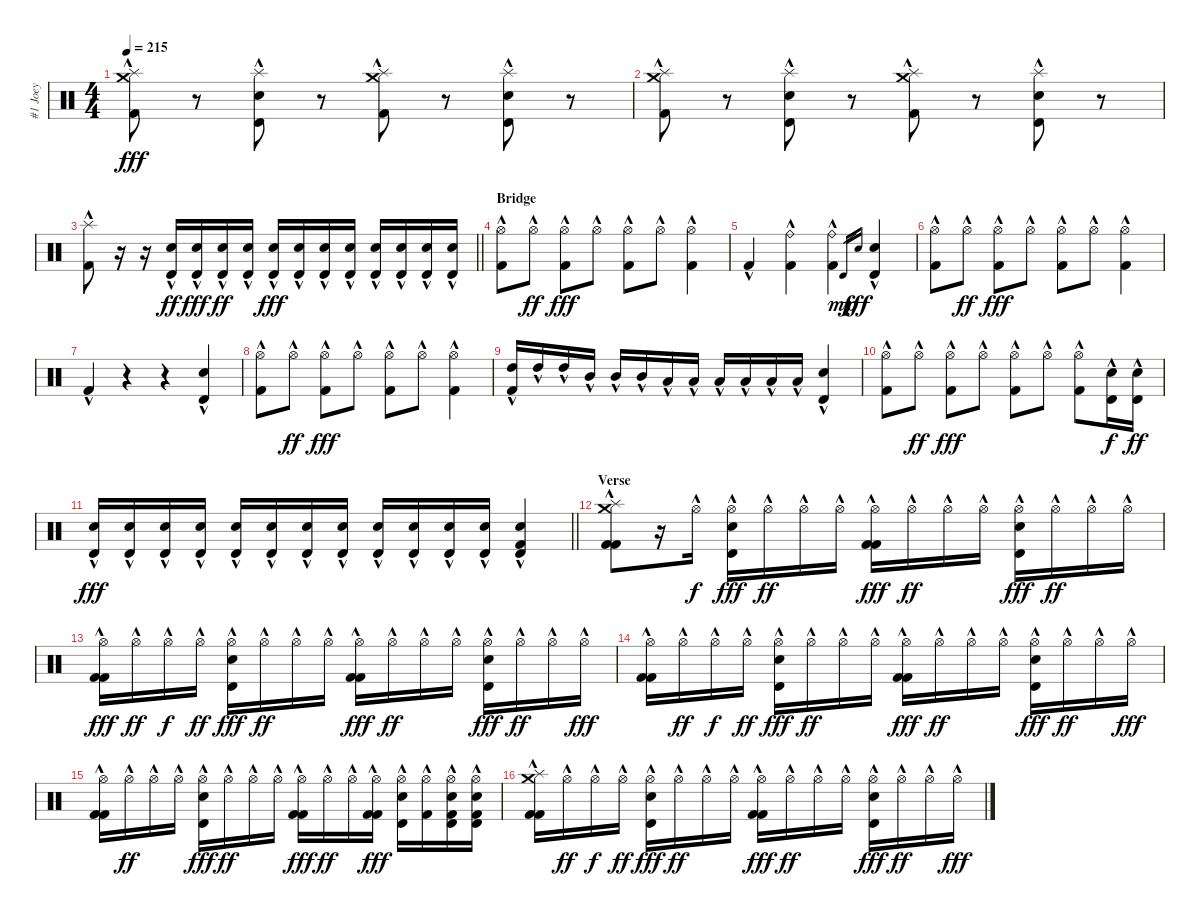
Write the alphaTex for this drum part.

\track ("#1 Joey" "#1 Joey") {instrument percussion}
\staff {score}
\articulation defaults
\ts (4 4)
\tempo 215
\clef neutral
\ks c
("Crash medium (hit)"{hac} "Splash (hit)"{hac} "Kick (hit) 2"{hac}).8{dy fff} r.8 ("Splash (hit)"{hac} "Timbale high (hit)"{hac} "Electric Snare (hit)"{hac}).8 r.8 ("Crash medium (hit)"{hac} "Splash (hit)"{hac} "Kick (hit) 2"{hac}).8 r.8 ("Splash (hit)"{hac} "Timbale high (hit)"{hac} "Electric Snare (hit)"{hac}).8 r.8 |
("Crash medium (hit)"{hac} "Splash (hit)"{hac} "Kick (hit) 2"{hac}).8 r.8 ("Splash (hit)"{hac} "Timbale high (hit)"{hac} "Electric Snare (hit)"{hac}).8 r.8 ("Crash medium (hit)"{hac} "Splash (hit)"{hac} "Kick (hit) 2"{hac}).8 r.8 ("Splash (hit)"{hac} "Timbale high (hit)"{hac} "Electric Snare (hit)"{hac}).8 r.8 |
\barLineRight lightlight
("Splash (hit)"{hac} "Kick (hit) 2"{hac}).8 r.16 r.16 ("Timbale high (hit)"{hac} "Electric Snare (hit)"{hac}).16{dy ff} ("Timbale high (hit)"{hac} "Electric Snare (hit)"{hac}).16{dy fff} ("Timbale high (hit)"{hac} "Electric Snare (hit)"{hac}).16{dy ff} ("Timbale high (hit)"{hac} "Electric Snare (hit)"{hac}).16 ("Timbale high (hit)"{hac} "Electric Snare (hit)"{hac}).16{dy fff} ("Timbale high (hit)"{hac} "Electric Snare (hit)"{hac}).16 ("Timbale high (hit)"{hac} "Electric Snare (hit)"{hac}).16 ("Timbale high (hit)"{hac} "Electric Snare (hit)"{hac}).16 ("Timbale high (hit)"{hac} "Electric Snare (hit)"{hac}).16 ("Timbale high (hit)"{hac} "Electric Snare (hit)"{hac}).16 ("Timbale high (hit)"{hac} "Electric Snare (hit)"{hac}).16 ("Timbale high (hit)"{hac} "Electric Snare (hit)"{hac}).16 |
\section ("" "Bridge")
("Hi-Hat (open)"{hac} "Kick (hit) 2"{hac}).8 "Hi-Hat (open)"{hac}.8{dy ff} ("Hi-Hat (open)"{hac} "Kick (hit) 2"{hac}).8{dy fff} "Hi-Hat (open)"{hac}.8 ("Hi-Hat (open)"{hac} "Kick (hit) 2"{hac}).8 "Hi-Hat (open)"{hac}.8 ("Hi-Hat (open)"{hac} "Kick (hit) 2"{hac}).4 |
"Kick (hit) 2"{hac}.4 ("Ride (bell)"{hac} "Kick (hit) 2"{hac}).4 ("Ride (bell)"{hac} "Kick (hit) 2"{hac}).4 "Timbale high (hit)".16{gr dy mp} "Electric Snare (hit)".16{gr dy fff} ("Timbale high (hit)"{hac} "Electric Snare (hit)"{hac}).4 |
("Hi-Hat (open)"{hac} "Kick (hit) 2"{hac}).8 "Hi-Hat (open)"{hac}.8{dy ff} ("Hi-Hat (open)"{hac} "Kick (hit) 2"{hac}).8{dy fff} "Hi-Hat (open)"{hac}.8 ("Hi-Hat (open)"{hac} "Kick (hit) 2"{hac}).8 "Hi-Hat (open)"{hac}.8 ("Hi-Hat (open)"{hac} "Kick (hit) 2"{hac}).4 |
"Kick (hit) 2"{hac}.4 r.4 r.4 ("Timbale high (hit)"{hac} "Electric Snare (hit)"{hac}).4 |
("Hi-Hat (open)"{hac} "Kick (hit) 2"{hac}).8 "Hi-Hat (open)"{hac}.8{dy ff} ("Hi-Hat (open)"{hac} "Kick (hit) 2"{hac}).8{dy fff} "Hi-Hat (open)"{hac}.8 ("Hi-Hat (open)"{hac} "Kick (hit) 2"{hac}).8 "Hi-Hat (open)"{hac}.8 ("Hi-Hat (open)"{hac} "Kick (hit) 2"{hac}).4 |
("High Tom (hit)"{hac} "Kick (hit) 2"{hac}).16 "High Tom (hit)"{hac}.16 "High Tom (hit)"{hac}.16 "Mid Tom (hit)"{hac}.16 "Mid Tom (hit)"{hac}.16 "Mid Tom (hit)"{hac}.16 "Low Tom (hit)"{hac}.16 "Low Tom (hit)"{hac}.16 "Low Tom (hit)"{hac}.16 "Low Floor Tom (hit)"{hac}.16 "Low Floor Tom (hit)"{hac}.16 "Low Floor Tom (hit)"{hac}.16 ("Timbale high (hit)"{hac} "Electric Snare (hit)"{hac}).4 |
("Hi-Hat (open)"{hac} "Kick (hit) 2"{hac}).8 "Hi-Hat (open)"{hac}.8{dy ff} ("Hi-Hat (open)"{hac} "Kick (hit) 2"{hac}).8{dy fff} "Hi-Hat (open)"{hac}.8 ("Hi-Hat (open)"{hac} "Kick (hit) 2"{hac}).8 "Hi-Hat (open)"{hac}.8 ("Hi-Hat (open)"{hac} "Kick (hit) 2"{hac}).8 ("Timbale high (hit)"{hac} "Electric Snare (hit)"{hac}).16{dy f} ("Timbale high (hit)"{hac} "Electric Snare (hit)"{hac}).16{dy ff} |
\barLineRight lightlight
("Timbale high (hit)"{hac} "Electric Snare (hit)"{hac}).16{dy fff} ("Timbale high (hit)"{hac} "Electric Snare (hit)"{hac}).16 ("Timbale high (hit)"{hac} "Electric Snare (hit)"{hac}).16 ("Timbale high (hit)"{hac} "Electric Snare (hit)"{hac}).16 ("Timbale high (hit)"{hac} "Electric Snare (hit)"{hac}).16 ("Timbale high (hit)"{hac} "Electric Snare (hit)"{hac}).16 ("Timbale high (hit)"{hac} "Electric Snare (hit)"{hac}).16 ("Timbale high (hit)"{hac} "Electric Snare (hit)"{hac}).16 ("Timbale high (hit)"{hac} "Electric Snare (hit)"{hac}).16 ("Timbale high (hit)"{hac} "Electric Snare (hit)"{hac}).16 ("Timbale high (hit)"{hac} "Electric Snare (hit)"{hac}).16 ("Timbale high (hit)"{hac} "Electric Snare (hit)"{hac}).16 ("Timbale high (hit)"{hac} "Electric Snare (hit)"{hac} "Kick (hit) 2"{hac}).4 |
\section ("" "Verse")
("Crash medium (hit)"{hac} "Splash (hit)"{hac} "Kick (hit) 2"{hac} "Kick (hit) 2"{hac}).8 r.16 "Hi-Hat (open)"{hac}.16{dy f} ("Hi-Hat (open)"{hac} "Timbale high (hit)"{hac} "Electric Snare (hit)"{hac}).16{dy fff} "Hi-Hat (open)"{hac}.16{dy ff} "Hi-Hat (open)"{hac}.16 "Hi-Hat (open)"{hac}.16 ("Hi-Hat (open)"{hac} "Kick (hit) 2"{hac} "Kick (hit) 2"{hac}).16{dy fff} "Hi-Hat (open)"{hac}.16{dy ff} "Hi-Hat (open)"{hac}.16 "Hi-Hat (open)"{hac}.16 ("Hi-Hat (open)"{hac} "Timbale high (hit)"{hac} "Electric Snare (hit)"{hac}).16{dy fff} "Hi-Hat (open)"{hac}.16{dy ff} "Hi-Hat (open)"{hac}.16 "Hi-Hat (open)"{hac}.16 |
("Hi-Hat (open)"{hac} "Kick (hit) 2"{hac} "Kick (hit) 2"{hac}).16{dy fff} "Hi-Hat (open)"{hac}.16{dy ff} "Hi-Hat (open)"{hac}.16{dy f} "Hi-Hat (open)"{hac}.16{dy ff} ("Hi-Hat (open)"{hac} "Timbale high (hit)"{hac} "Electric Snare (hit)"{hac}).16{dy fff} "Hi-Hat (open)"{hac}.16{dy ff} "Hi-Hat (open)"{hac}.16 "Hi-Hat (open)"{hac}.16 ("Hi-Hat (open)"{hac} "Kick (hit) 2"{hac} "Kick (hit) 2"{hac}).16{dy fff} "Hi-Hat (open)"{hac}.16{dy ff} "Hi-Hat (open)"{hac}.16 "Hi-Hat (open)"{hac}.16 ("Hi-Hat (open)"{hac} "Timbale high (hit)"{hac} "Electric Snare (hit)"{hac}).16{dy fff} "Hi-Hat (open)"{hac}.16{dy ff} "Hi-Hat (open)"{hac}.16 "Hi-Hat (open)"{hac}.16{dy fff} |
("Hi-Hat (open)"{hac} "Kick (hit) 2"{hac} "Kick (hit) 2"{hac}).16 "Hi-Hat (open)"{hac}.16{dy ff} "Hi-Hat (open)"{hac}.16{dy f} "Hi-Hat (open)"{hac}.16{dy ff} ("Hi-Hat (open)"{hac} "Timbale high (hit)"{hac} "Electric Snare (hit)"{hac}).16{dy fff} "Hi-Hat (open)"{hac}.16{dy ff} "Hi-Hat (open)"{hac}.16 "Hi-Hat (open)"{hac}.16 ("Hi-Hat (open)"{hac} "Kick (hit) 2"{hac} "Kick (hit) 2"{hac}).16{dy fff} "Hi-Hat (open)"{hac}.16{dy ff} "Hi-Hat (open)"{hac}.16 "Hi-Hat (open)"{hac}.16 ("Hi-Hat (open)"{hac} "Timbale high (hit)"{hac} "Electric Snare (hit)"{hac}).16{dy fff} "Hi-Hat (open)"{hac}.16{dy ff} "Hi-Hat (open)"{hac}.16 "Hi-Hat (open)"{hac}.16{dy fff} |
("Hi-Hat (open)"{hac} "Kick (hit) 2"{hac} "Kick (hit) 2"{hac}).16 "Hi-Hat (open)"{hac}.16{dy ff} "Hi-Hat (open)"{hac}.16 "Hi-Hat (open)"{hac}.16 ("Hi-Hat (open)"{hac} "Timbale high (hit)"{hac} "Electric Snare (hit)"{hac}).16{dy fff} "Hi-Hat (open)"{hac}.16{dy ff} "Hi-Hat (open)"{hac}.16 "Hi-Hat (open)"{hac}.16 ("Hi-Hat (open)"{hac} "Kick (hit) 2"{hac} "Kick (hit) 2"{hac}).16{dy fff} "Hi-Hat (open)"{hac}.16{dy ff} "Hi-Hat (open)"{hac}.16 ("Hi-Hat (open)"{hac} "Kick (hit) 2"{hac} "Kick (hit) 2"{hac}).16{dy fff} ("Hi-Hat (open)"{hac} "Timbale high (hit)"{hac} "Electric Snare (hit)"{hac}).16 ("Hi-Hat (open)"{hac} "Kick (hit) 2"{hac}).16 ("Hi-Hat (open)"{hac} "Timbale high (hit)"{hac} "Electric Snare (hit)"{hac} "Kick (hit) 2"{hac}).16 ("Hi-Hat (open)"{hac} "Timbale high (hit)"{hac} "Electric Snare (hit)"{hac} "Kick (hit) 2"{hac}).16 |
("Crash medium (hit)"{hac} "Splash (hit)"{hac} "Kick (hit) 2"{hac} "Kick (hit) 2"{hac}).16 "Hi-Hat (open)"{hac}.16{dy ff} "Hi-Hat (open)"{hac}.16{dy f} "Hi-Hat (open)"{hac}.16{dy ff} ("Hi-Hat (open)"{hac} "Timbale high (hit)"{hac} "Electric Snare (hit)"{hac}).16{dy fff} "Hi-Hat (open)"{hac}.16{dy ff} "Hi-Hat (open)"{hac}.16 "Hi-Hat (open)"{hac}.16 ("Hi-Hat (open)"{hac} "Kick (hit) 2"{hac} "Kick (hit) 2"{hac}).16{dy fff} "Hi-Hat (open)"{hac}.16{dy ff} "Hi-Hat (open)"{hac}.16 "Hi-Hat (open)"{hac}.16 ("Hi-Hat (open)"{hac} "Timbale high (hit)"{hac} "Electric Snare (hit)"{hac}).16{dy fff} "Hi-Hat (open)"{hac}.16{dy ff} "Hi-Hat (open)"{hac}.16 "Hi-Hat (open)"{hac}.16{dy fff}
